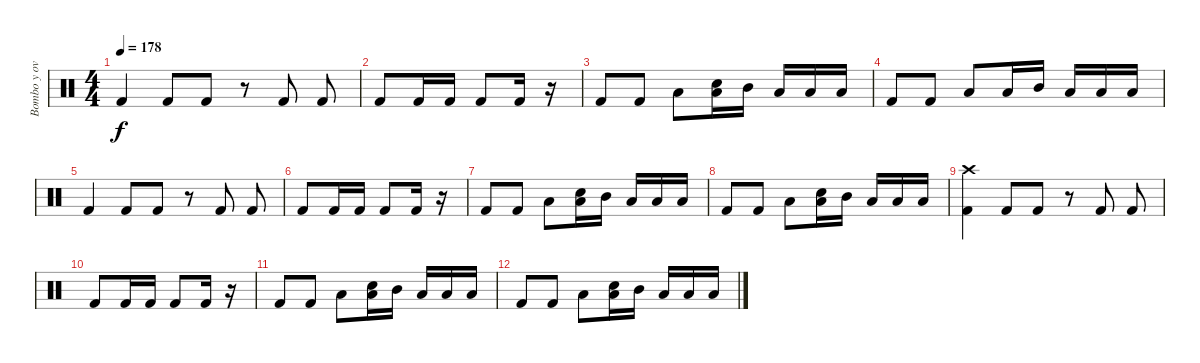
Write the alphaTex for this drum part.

\track ("Bombo y overdubs (bateria)" "Bombo y ov") {instrument percussion}
\staff {score}
\articulation defaults
\ts (4 4)
\tempo 178
\clef neutral
\ks c "Kick (hit) 2".4{dy f} "Kick (hit) 2".8 "Kick (hit) 2".8
r.8 "Kick (hit) 2".8 "Kick (hit) 2".8 |
"Kick (hit) 2".8 "Kick (hit) 2".16 "Kick (hit) 2".16 "Kick (hit) 2".8 "Kick (hit) 2".16 r.16 |
"Kick (hit) 2".8 "Kick (hit) 2".8 "Low Tom (hit)".8 ("Low Tom (hit)" "Snare (hit)").16 "Mid Tom (hit)".16 "Low Tom (hit)".16 "Low Tom (hit)".16 "Low Tom (hit)".16 |
"Kick (hit) 2".8 "Kick (hit) 2".8 "Low Tom (hit)".8 "Low Tom (hit)".16 "Mid Tom (hit)".16 "Low Tom (hit)".16 "Low Tom (hit)".16 "Low Tom (hit)".16 |
"Kick (hit) 2".4 "Kick (hit) 2".8 "Kick (hit) 2".8 r.8 "Kick (hit) 2".8 "Kick (hit) 2".8 |
"Kick (hit) 2".8 "Kick (hit) 2".16 "Kick (hit) 2".16 "Kick (hit) 2".8 "Kick (hit) 2".16 r.16 |
"Kick (hit) 2".8 "Kick (hit) 2".8 "Low Tom (hit)".8 ("Low Tom (hit)" "Snare (hit)").16 "Mid Tom (hit)".16 "Low Tom (hit)".16 "Low Tom (hit)".16 "Low Tom (hit)".16 |
"Kick (hit) 2".8 "Kick (hit) 2".8 "Low Tom (hit)".8 ("Low Tom (hit)" "Snare (hit)").16 "Mid Tom (hit)".16 "Low Tom (hit)".16 "Low Tom (hit)".16 "Low Tom (hit)".16 |
("Crash high (hit)" "Kick (hit) 2").4 "Kick (hit) 2".8 "Kick (hit) 2".8 r.8 "Kick (hit) 2".8 "Kick (hit) 2".8 |
"Kick (hit) 2".8 "Kick (hit) 2".16 "Kick (hit) 2".16 "Kick (hit) 2".8 "Kick (hit) 2".16 r.16 |
"Kick (hit) 2".8 "Kick (hit) 2".8 "Low Tom (hit)".8 ("Low Tom (hit)" "Snare (hit)").16 "Mid Tom (hit)".16 "Low Tom (hit)".16 "Low Tom (hit)".16 "Low Tom (hit)".16 |
"Kick (hit) 2".8 "Kick (hit) 2".8 "Low Tom (hit)".8 ("Low Tom (hit)" "Snare (hit)").16 "Mid Tom (hit)".16 "Low Tom (hit)".16 "Low Tom (hit)".16 "Low Tom (hit)".16
